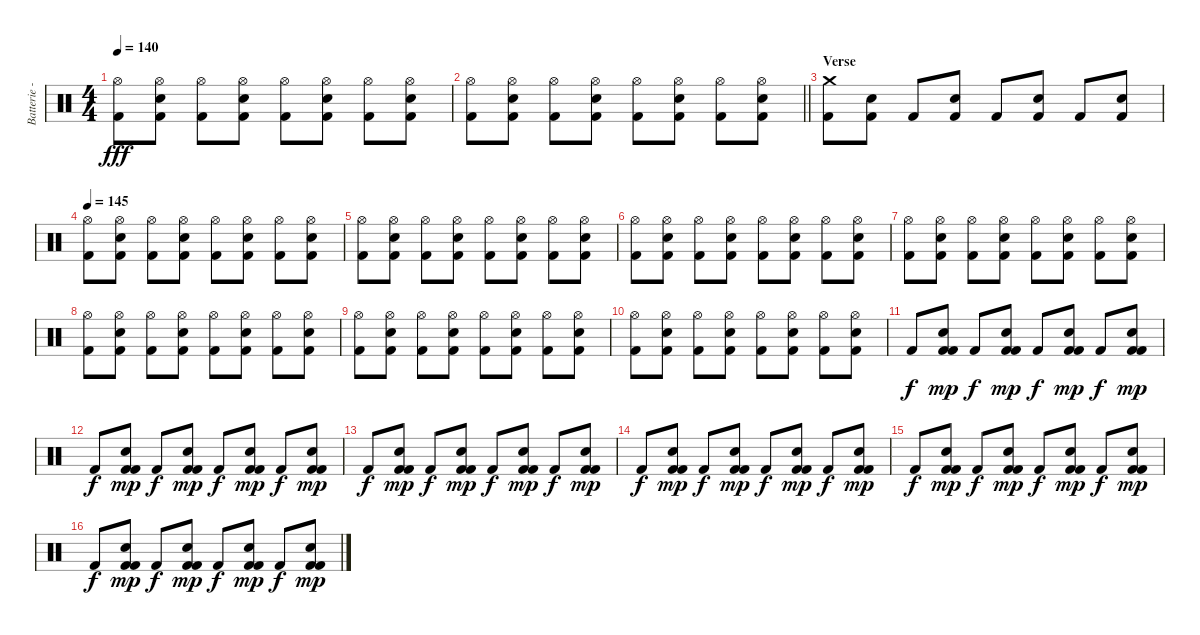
\track ("Batterie - Larzon" "Batterie -") {instrument percussion}
\staff {score}
\articulation defaults
\ts (4 4)
\tempo 140
\clef neutral
\ks c
("Kick (hit) 2" "Hi-Hat (open)").8{dy fff} ("Kick (hit) 2" "Hi-Hat (open)" "Electric Snare (hit)").8 ("Kick (hit) 2" "Hi-Hat (open)").8 ("Kick (hit) 2" "Hi-Hat (open)" "Electric Snare (hit)").8 ("Kick (hit) 2" "Hi-Hat (open)").8 ("Kick (hit) 2" "Hi-Hat (open)" "Electric Snare (hit)").8 ("Kick (hit) 2" "Hi-Hat (open)").8 ("Kick (hit) 2" "Hi-Hat (open)" "Electric Snare (hit)").8 |
\barLineRight lightlight
("Kick (hit) 2" "Hi-Hat (open)").8 ("Kick (hit) 2" "Hi-Hat (open)" "Electric Snare (hit)").8 ("Kick (hit) 2" "Hi-Hat (open)").8 ("Kick (hit) 2" "Hi-Hat (open)" "Electric Snare (hit)").8 ("Kick (hit) 2" "Hi-Hat (open)").8 ("Kick (hit) 2" "Hi-Hat (open)" "Electric Snare (hit)").8 ("Kick (hit) 2" "Hi-Hat (open)").8 ("Kick (hit) 2" "Hi-Hat (open)" "Electric Snare (hit)").8 |
\section ("" "Verse")
("Kick (hit) 2" "Crash medium (hit)").8 ("Kick (hit) 2" "Electric Snare (hit)").8 "Kick (hit) 2".8 ("Kick (hit) 2" "Electric Snare (hit)").8 "Kick (hit) 2".8 ("Kick (hit) 2" "Electric Snare (hit)").8 "Kick (hit) 2".8 ("Kick (hit) 2" "Electric Snare (hit)").8 |
\tempo 145
("Kick (hit) 2" "Hi-Hat (open)").8 ("Kick (hit) 2" "Hi-Hat (open)" "Electric Snare (hit)").8 ("Kick (hit) 2" "Hi-Hat (open)").8 ("Kick (hit) 2" "Hi-Hat (open)" "Electric Snare (hit)").8 ("Kick (hit) 2" "Hi-Hat (open)").8 ("Kick (hit) 2" "Hi-Hat (open)" "Electric Snare (hit)").8 ("Kick (hit) 2" "Hi-Hat (open)").8 ("Kick (hit) 2" "Hi-Hat (open)" "Electric Snare (hit)").8 |
("Kick (hit) 2" "Hi-Hat (open)").8 ("Kick (hit) 2" "Hi-Hat (open)" "Electric Snare (hit)").8 ("Kick (hit) 2" "Hi-Hat (open)").8 ("Kick (hit) 2" "Hi-Hat (open)" "Electric Snare (hit)").8 ("Kick (hit) 2" "Hi-Hat (open)").8 ("Kick (hit) 2" "Hi-Hat (open)" "Electric Snare (hit)").8 ("Kick (hit) 2" "Hi-Hat (open)").8 ("Kick (hit) 2" "Hi-Hat (open)" "Electric Snare (hit)").8 |
("Kick (hit) 2" "Hi-Hat (open)").8 ("Kick (hit) 2" "Hi-Hat (open)" "Electric Snare (hit)").8 ("Kick (hit) 2" "Hi-Hat (open)").8 ("Kick (hit) 2" "Hi-Hat (open)" "Electric Snare (hit)").8 ("Kick (hit) 2" "Hi-Hat (open)").8 ("Kick (hit) 2" "Hi-Hat (open)" "Electric Snare (hit)").8 ("Kick (hit) 2" "Hi-Hat (open)").8 ("Kick (hit) 2" "Hi-Hat (open)" "Electric Snare (hit)").8 |
("Kick (hit) 2" "Hi-Hat (open)").8 ("Kick (hit) 2" "Hi-Hat (open)" "Electric Snare (hit)").8 ("Kick (hit) 2" "Hi-Hat (open)").8 ("Kick (hit) 2" "Hi-Hat (open)" "Electric Snare (hit)").8 ("Kick (hit) 2" "Hi-Hat (open)").8 ("Kick (hit) 2" "Hi-Hat (open)" "Electric Snare (hit)").8 ("Kick (hit) 2" "Hi-Hat (open)").8 ("Kick (hit) 2" "Hi-Hat (open)" "Electric Snare (hit)").8 |
("Kick (hit) 2" "Hi-Hat (open)").8 ("Kick (hit) 2" "Hi-Hat (open)" "Electric Snare (hit)").8 ("Kick (hit) 2" "Hi-Hat (open)").8 ("Kick (hit) 2" "Hi-Hat (open)" "Electric Snare (hit)").8 ("Kick (hit) 2" "Hi-Hat (open)").8 ("Kick (hit) 2" "Hi-Hat (open)" "Electric Snare (hit)").8 ("Kick (hit) 2" "Hi-Hat (open)").8 ("Kick (hit) 2" "Hi-Hat (open)" "Electric Snare (hit)").8 |
("Kick (hit) 2" "Hi-Hat (open)").8 ("Kick (hit) 2" "Hi-Hat (open)" "Electric Snare (hit)").8 ("Kick (hit) 2" "Hi-Hat (open)").8 ("Kick (hit) 2" "Hi-Hat (open)" "Electric Snare (hit)").8 ("Kick (hit) 2" "Hi-Hat (open)").8 ("Kick (hit) 2" "Hi-Hat (open)" "Electric Snare (hit)").8 ("Kick (hit) 2" "Hi-Hat (open)").8 ("Kick (hit) 2" "Hi-Hat (open)" "Electric Snare (hit)").8 |
("Kick (hit) 2" "Hi-Hat (open)").8 ("Kick (hit) 2" "Hi-Hat (open)" "Electric Snare (hit)").8 ("Kick (hit) 2" "Hi-Hat (open)").8 ("Kick (hit) 2" "Hi-Hat (open)" "Electric Snare (hit)").8 ("Kick (hit) 2" "Hi-Hat (open)").8 ("Kick (hit) 2" "Hi-Hat (open)" "Electric Snare (hit)").8 ("Kick (hit) 2" "Hi-Hat (open)").8 ("Kick (hit) 2" "Hi-Hat (open)" "Electric Snare (hit)").8 |
"Kick (hit) 2".8{dy f} ("Kick (hit) 2" "Kick (hit) 2" "Electric Snare (hit)").8{dy mp} "Kick (hit) 2".8{dy f} ("Kick (hit) 2" "Kick (hit) 2" "Electric Snare (hit)").8{dy mp} "Kick (hit) 2".8{dy f} ("Kick (hit) 2" "Kick (hit) 2" "Electric Snare (hit)").8{dy mp} "Kick (hit) 2".8{dy f} ("Kick (hit) 2" "Kick (hit) 2" "Electric Snare (hit)").8{dy mp} |
"Kick (hit) 2".8{dy f} ("Kick (hit) 2" "Kick (hit) 2" "Electric Snare (hit)").8{dy mp} "Kick (hit) 2".8{dy f} ("Kick (hit) 2" "Kick (hit) 2" "Electric Snare (hit)").8{dy mp} "Kick (hit) 2".8{dy f} ("Kick (hit) 2" "Kick (hit) 2" "Electric Snare (hit)").8{dy mp} "Kick (hit) 2".8{dy f} ("Kick (hit) 2" "Kick (hit) 2" "Electric Snare (hit)").8{dy mp} |
"Kick (hit) 2".8{dy f} ("Kick (hit) 2" "Kick (hit) 2" "Electric Snare (hit)").8{dy mp} "Kick (hit) 2".8{dy f} ("Kick (hit) 2" "Kick (hit) 2" "Electric Snare (hit)").8{dy mp} "Kick (hit) 2".8{dy f} ("Kick (hit) 2" "Kick (hit) 2" "Electric Snare (hit)").8{dy mp} "Kick (hit) 2".8{dy f} ("Kick (hit) 2" "Kick (hit) 2" "Electric Snare (hit)").8{dy mp} |
"Kick (hit) 2".8{dy f} ("Kick (hit) 2" "Kick (hit) 2" "Electric Snare (hit)").8{dy mp} "Kick (hit) 2".8{dy f} ("Kick (hit) 2" "Kick (hit) 2" "Electric Snare (hit)").8{dy mp} "Kick (hit) 2".8{dy f} ("Kick (hit) 2" "Kick (hit) 2" "Electric Snare (hit)").8{dy mp} "Kick (hit) 2".8{dy f} ("Kick (hit) 2" "Kick (hit) 2" "Electric Snare (hit)").8{dy mp} |
"Kick (hit) 2".8{dy f} ("Kick (hit) 2" "Kick (hit) 2" "Electric Snare (hit)").8{dy mp} "Kick (hit) 2".8{dy f} ("Kick (hit) 2" "Kick (hit) 2" "Electric Snare (hit)").8{dy mp} "Kick (hit) 2".8{dy f} ("Kick (hit) 2" "Kick (hit) 2" "Electric Snare (hit)").8{dy mp} "Kick (hit) 2".8{dy f} ("Kick (hit) 2" "Kick (hit) 2" "Electric Snare (hit)").8{dy mp} |
"Kick (hit) 2".8{dy f} ("Kick (hit) 2" "Kick (hit) 2" "Electric Snare (hit)").8{dy mp} "Kick (hit) 2".8{dy f} ("Kick (hit) 2" "Kick (hit) 2" "Electric Snare (hit)").8{dy mp} "Kick (hit) 2".8{dy f} ("Kick (hit) 2" "Kick (hit) 2" "Electric Snare (hit)").8{dy mp} "Kick (hit) 2".8{dy f} ("Kick (hit) 2" "Kick (hit) 2" "Electric Snare (hit)").8{dy mp}
